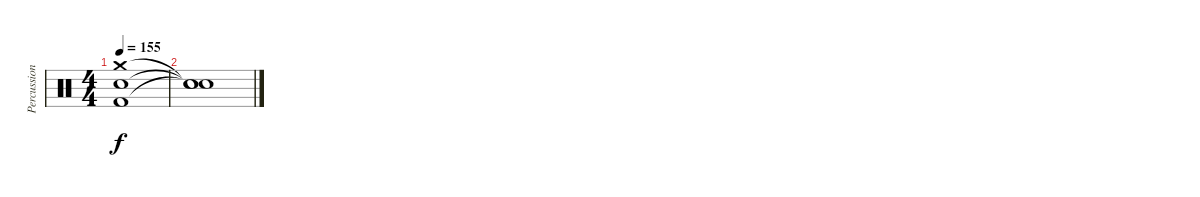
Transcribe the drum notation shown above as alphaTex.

\track ("Percussions" "Percussion") {instrument percussion}
\staff {score}
\articulation defaults
\ts (4 4)
\tempo 155
\clef neutral
\ks c
("Crash medium (hit)" "Snare (hit) 2" "Kick (hit) 2").1{dy f} |
("Snare (hit)"{t} "Snare (hit)"{t} "Snare (hit)"{t}).1
